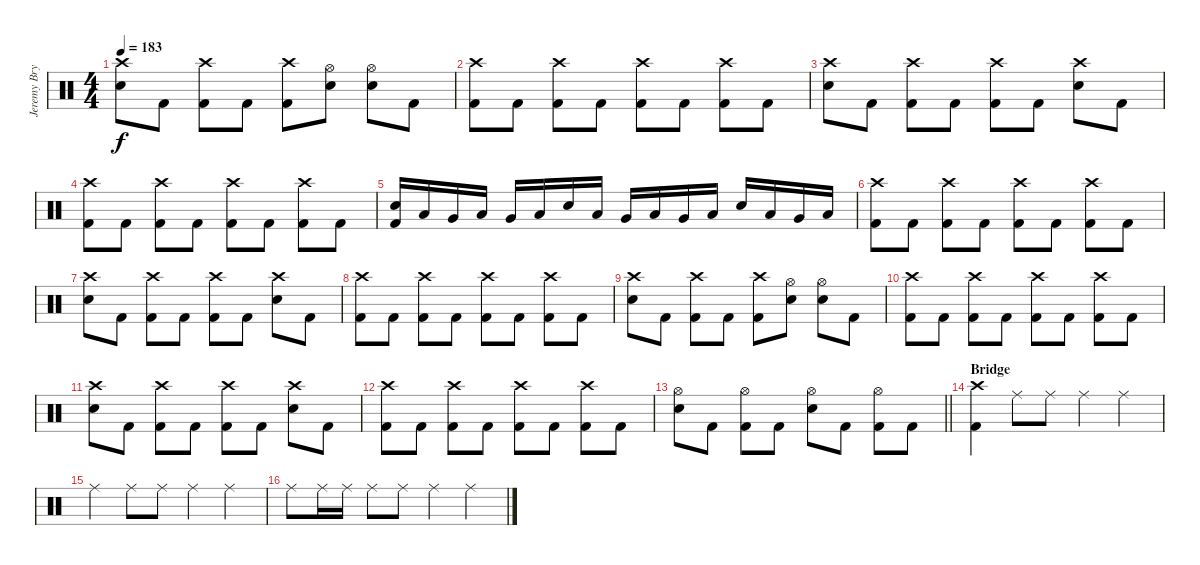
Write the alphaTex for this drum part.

\track ("Jeremy Bryan - Drums" "Jeremy Bry") {instrument percussion}
\staff {score}
\articulation defaults
\ts (4 4)
\tempo 183
\clef neutral
\ks c
("Crash high (hit)" "Electric Snare (hit)").8{dy f} "Kick (hit) 2".8 ("Crash high (hit)" "Kick (hit) 2").8 "Kick (hit) 2".8 ("Crash high (hit)" "Kick (hit) 2").8 ("Hi-Hat (open)" "Electric Snare (hit)").8 ("Hi-Hat (open)" "Electric Snare (hit)").8 "Kick (hit) 2".8 |
("Crash high (hit)" "Kick (hit) 2").8 "Kick (hit) 2".8 ("Crash high (hit)" "Kick (hit) 2").8 "Kick (hit) 2".8 ("Crash high (hit)" "Kick (hit) 2").8 "Kick (hit) 2".8 ("Crash high (hit)" "Kick (hit) 2").8 "Kick (hit) 2".8 |
("Crash high (hit)" "Electric Snare (hit)").8 "Kick (hit) 2".8 ("Crash high (hit)" "Kick (hit) 2").8 "Kick (hit) 2".8 ("Crash high (hit)" "Kick (hit) 2").8 "Kick (hit) 2".8 ("Crash high (hit)" "Electric Snare (hit)").8 "Kick (hit) 2".8 |
("Crash high (hit)" "Kick (hit) 2").8 "Kick (hit) 2".8 ("Crash high (hit)" "Kick (hit) 2").8 "Kick (hit) 2".8 ("Crash high (hit)" "Kick (hit) 2").8 "Kick (hit) 2".8 ("Crash high (hit)" "Kick (hit) 2").8 "Kick (hit) 2".8 |
("Electric Snare (hit)" "Kick (hit) 2").16 "Low Floor Tom (hit)".16 "Very Low Tom (hit)".16 "Low Floor Tom (hit)".16 "Very Low Tom (hit)".16 "Low Floor Tom (hit)".16 "Electric Snare (hit)".16 "Low Floor Tom (hit)".16 "Very Low Tom (hit)".16 "Low Floor Tom (hit)".16 "Very Low Tom (hit)".16 "Low Floor Tom (hit)".16 "Electric Snare (hit)".16 "Low Floor Tom (hit)".16 "Very Low Tom (hit)".16 "Low Floor Tom (hit)".16 |
("Crash high (hit)" "Kick (hit) 2").8 "Kick (hit) 2".8 ("Crash high (hit)" "Kick (hit) 2").8 "Kick (hit) 2".8 ("Crash high (hit)" "Kick (hit) 2").8 "Kick (hit) 2".8 ("Crash high (hit)" "Kick (hit) 2").8 "Kick (hit) 2".8 |
("Crash high (hit)" "Electric Snare (hit)").8 "Kick (hit) 2".8 ("Crash high (hit)" "Kick (hit) 2").8 "Kick (hit) 2".8 ("Crash high (hit)" "Kick (hit) 2").8 "Kick (hit) 2".8 ("Crash high (hit)" "Electric Snare (hit)").8 "Kick (hit) 2".8 |
("Crash high (hit)" "Kick (hit) 2").8 "Kick (hit) 2".8 ("Crash high (hit)" "Kick (hit) 2").8 "Kick (hit) 2".8 ("Crash high (hit)" "Kick (hit) 2").8 "Kick (hit) 2".8 ("Crash high (hit)" "Kick (hit) 2").8 "Kick (hit) 2".8 |
("Crash high (hit)" "Electric Snare (hit)").8 "Kick (hit) 2".8 ("Crash high (hit)" "Kick (hit) 2").8 "Kick (hit) 2".8 ("Crash high (hit)" "Kick (hit) 2").8 ("Hi-Hat (open)" "Electric Snare (hit)").8 ("Hi-Hat (open)" "Electric Snare (hit)").8 "Kick (hit) 2".8 |
("Crash high (hit)" "Kick (hit) 2").8 "Kick (hit) 2".8 ("Crash high (hit)" "Kick (hit) 2").8 "Kick (hit) 2".8 ("Crash high (hit)" "Kick (hit) 2").8 "Kick (hit) 2".8 ("Crash high (hit)" "Kick (hit) 2").8 "Kick (hit) 2".8 |
("Crash high (hit)" "Electric Snare (hit)").8 "Kick (hit) 2".8 ("Crash high (hit)" "Kick (hit) 2").8 "Kick (hit) 2".8 ("Crash high (hit)" "Kick (hit) 2").8 "Kick (hit) 2".8 ("Crash high (hit)" "Electric Snare (hit)").8 "Kick (hit) 2".8 |
("Crash high (hit)" "Kick (hit) 2").8 "Kick (hit) 2".8 ("Crash high (hit)" "Kick (hit) 2").8 "Kick (hit) 2".8 ("Crash high (hit)" "Kick (hit) 2").8 "Kick (hit) 2".8 ("Crash high (hit)" "Kick (hit) 2").8 "Kick (hit) 2".8 |
\barLineRight lightlight
("Hi-Hat (open)" "Electric Snare (hit)").8 "Kick (hit) 2".8 ("Hi-Hat (open)" "Kick (hit) 2").8 "Kick (hit) 2".8 ("Hi-Hat (open)" "Electric Snare (hit)").8 "Kick (hit) 2".8 ("Hi-Hat (open)" "Kick (hit) 2").8 "Kick (hit) 2".8 |
\section ("" "Bridge")
("Crash high (hit)" "Kick (hit) 2").4 "Ride (middle)".8 "Ride (middle)".8 "Ride (middle)".4 "Ride (middle)".4 |
"Ride (middle)".4 "Ride (middle)".8 "Ride (middle)".8 "Ride (middle)".4 "Ride (middle)".4 |
"Ride (middle)".8 "Ride (middle)".16 "Ride (middle)".16 "Ride (middle)".8 "Ride (middle)".8 "Ride (middle)".4 "Ride (middle)".4
